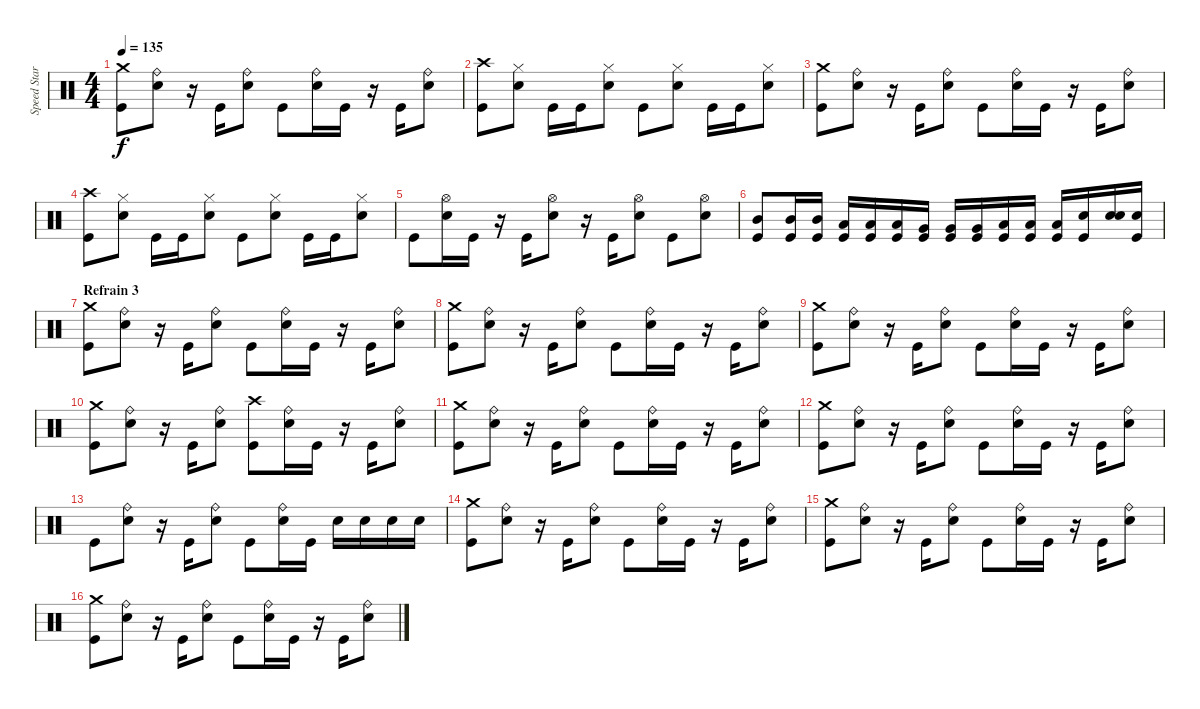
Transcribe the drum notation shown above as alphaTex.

\track ("Speed Star" "Speed Star") {instrument percussion}
\staff {score}
\articulation defaults
\ts (4 4)
\tempo 135
\clef neutral
\ks c
("Kick (hit)" "Crash medium (hit)").8{dy f} ("Snare (hit) 2" "Ride (bell)").8 r.16 "Kick (hit)".16 ("Snare (hit) 2" "Ride (bell)").8 "Kick (hit)".8 ("Snare (hit) 2" "Ride (bell)").16 "Kick (hit)".16 r.16 "Kick (hit)".16 ("Snare (hit) 2" "Ride (bell)").8 |
("Kick (hit)" "Crash high (hit)").8 ("Snare (hit) 2" "Hi-Hat (closed)").8 "Kick (hit)".16 "Kick (hit)".16 ("Snare (hit) 2" "Hi-Hat (closed)").8 "Kick (hit)".8 ("Snare (hit) 2" "Hi-Hat (closed)").8 "Kick (hit)".16 "Kick (hit)".16 ("Snare (hit) 2" "Hi-Hat (closed)").8 |
("Kick (hit)" "Crash medium (hit)").8 ("Snare (hit) 2" "Ride (bell)").8 r.16 "Kick (hit)".16 ("Snare (hit) 2" "Ride (bell)").8 "Kick (hit)".8 ("Snare (hit) 2" "Ride (bell)").16 "Kick (hit)".16 r.16 "Kick (hit)".16 ("Snare (hit) 2" "Ride (bell)").8 |
("Kick (hit)" "Crash high (hit)").8 ("Snare (hit) 2" "Hi-Hat (closed)").8 "Kick (hit)".16 "Kick (hit)".16 ("Snare (hit) 2" "Hi-Hat (closed)").8 "Kick (hit)".8 ("Snare (hit) 2" "Hi-Hat (closed)").8 "Kick (hit)".16 "Kick (hit)".16 ("Snare (hit) 2" "Hi-Hat (closed)").8 |
"Kick (hit)".8 ("Snare (hit) 2" "Hi-Hat (open)").16 "Kick (hit)".16 r.16 "Kick (hit)".16 ("Snare (hit) 2" "Hi-Hat (open)").8 r.16 "Kick (hit)".16 ("Snare (hit) 2" "Hi-Hat (open)").8 "Kick (hit)".8 ("Snare (hit) 2" "Hi-Hat (open)").8 |
("Kick (hit)" "Mid Tom (hit)").8 ("Kick (hit)" "Mid Tom (hit)").16 ("Kick (hit)" "Mid Tom (hit)").16 ("Kick (hit)" "Low Tom (hit)").16 ("Kick (hit)" "Low Tom (hit)").16 ("Kick (hit)" "Low Tom (hit)").16 ("Kick (hit)" "Very Low Tom (hit)").16 ("Kick (hit)" "Very Low Tom (hit)").16 ("Kick (hit)" "Very Low Tom (hit)").16 ("Kick (hit)" "Low Floor Tom (hit)").16 ("Kick (hit)" "Low Floor Tom (hit)").16 ("Kick (hit)" "Low Floor Tom (hit)").16 ("Kick (hit)" "Snare (hit) 2").16 ("Snare (hit)" "Snare (hit) 2").16 ("Kick (hit)" "Snare (hit) 2").16 |
\section ("" "Refrain 3")
("Kick (hit)" "Crash medium (hit)").8 ("Snare (hit) 2" "Ride (bell)").8 r.16 "Kick (hit)".16 ("Snare (hit) 2" "Ride (bell)").8 "Kick (hit)".8 ("Snare (hit) 2" "Ride (bell)").16 "Kick (hit)".16 r.16 "Kick (hit)".16 ("Snare (hit) 2" "Ride (bell)").8 |
("Kick (hit)" "Crash medium (hit)").8 ("Snare (hit) 2" "Ride (bell)").8 r.16 "Kick (hit)".16 ("Snare (hit) 2" "Ride (bell)").8 "Kick (hit)".8 ("Snare (hit) 2" "Ride (bell)").16 "Kick (hit)".16 r.16 "Kick (hit)".16 ("Snare (hit) 2" "Ride (bell)").8 |
("Kick (hit)" "Crash medium (hit)").8 ("Snare (hit) 2" "Ride (bell)").8 r.16 "Kick (hit)".16 ("Snare (hit) 2" "Ride (bell)").8 "Kick (hit)".8 ("Snare (hit) 2" "Ride (bell)").16 "Kick (hit)".16 r.16 "Kick (hit)".16 ("Snare (hit) 2" "Ride (bell)").8 |
("Kick (hit)" "Crash medium (hit)").8 ("Snare (hit) 2" "Ride (bell)").8 r.16 "Kick (hit)".16 ("Snare (hit) 2" "Ride (bell)").8 ("Kick (hit)" "Crash high (hit)").8 ("Snare (hit) 2" "Ride (bell)").16 "Kick (hit)".16 r.16 "Kick (hit)".16 ("Snare (hit) 2" "Ride (bell)").8 |
("Kick (hit)" "Crash medium (hit)").8 ("Snare (hit) 2" "Ride (bell)").8 r.16 "Kick (hit)".16 ("Snare (hit) 2" "Ride (bell)").8 "Kick (hit)".8 ("Snare (hit) 2" "Ride (bell)").16 "Kick (hit)".16 r.16 "Kick (hit)".16 ("Snare (hit) 2" "Ride (bell)").8 |
("Kick (hit)" "Crash medium (hit)").8 ("Snare (hit) 2" "Ride (bell)").8 r.16 "Kick (hit)".16 ("Snare (hit) 2" "Ride (bell)").8 "Kick (hit)".8 ("Snare (hit) 2" "Ride (bell)").16 "Kick (hit)".16 r.16 "Kick (hit)".16 ("Snare (hit) 2" "Ride (bell)").8 |
"Kick (hit)".8 ("Snare (hit) 2" "Ride (bell)").8 r.16 "Kick (hit)".16 ("Snare (hit) 2" "Ride (bell)").8 "Kick (hit)".8 ("Snare (hit) 2" "Ride (bell)").16 "Kick (hit)".16 "Snare (hit) 2".16 "Snare (hit) 2".16 "Snare (hit) 2".16 "Snare (hit) 2".16 |
("Kick (hit)" "Crash medium (hit)").8 ("Snare (hit) 2" "Ride (bell)").8 r.16 "Kick (hit)".16 ("Snare (hit) 2" "Ride (bell)").8 "Kick (hit)".8 ("Snare (hit) 2" "Ride (bell)").16 "Kick (hit)".16 r.16 "Kick (hit)".16 ("Snare (hit) 2" "Ride (bell)").8 |
("Kick (hit)" "Crash medium (hit)").8 ("Snare (hit) 2" "Ride (bell)").8 r.16 "Kick (hit)".16 ("Snare (hit) 2" "Ride (bell)").8 "Kick (hit)".8 ("Snare (hit) 2" "Ride (bell)").16 "Kick (hit)".16 r.16 "Kick (hit)".16 ("Snare (hit) 2" "Ride (bell)").8 |
("Kick (hit)" "Crash medium (hit)").8 ("Snare (hit) 2" "Ride (bell)").8 r.16 "Kick (hit)".16 ("Snare (hit) 2" "Ride (bell)").8 "Kick (hit)".8 ("Snare (hit) 2" "Ride (bell)").16 "Kick (hit)".16 r.16 "Kick (hit)".16 ("Snare (hit) 2" "Ride (bell)").8
